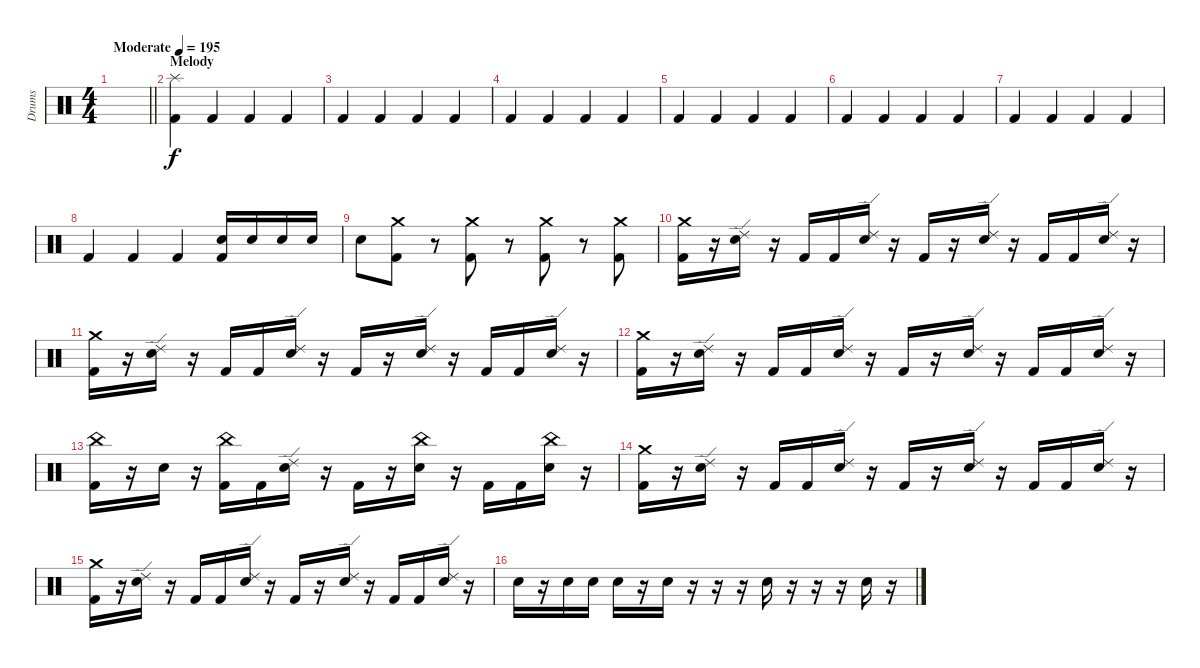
\track ("Drums" "Drums") {instrument percussion}
\staff {score}
\articulation defaults
\ts (4 4)
\tempo (195 "Moderate")
\clef neutral
\barLineRight lightlight
\ks c
|
\section ("" "Melody")
("Splash (hit)" "Kick (hit) 2").4 "Kick (hit) 2".4 "Kick (hit) 2".4 "Kick (hit) 2".4 |
"Kick (hit) 2".4 "Kick (hit) 2".4 "Kick (hit) 2".4 "Kick (hit) 2".4 |
"Kick (hit) 2".4 "Kick (hit) 2".4 "Kick (hit) 2".4 "Kick (hit) 2".4 |
"Kick (hit) 2".4 "Kick (hit) 2".4 "Kick (hit) 2".4 "Kick (hit) 2".4 |
"Kick (hit) 2".4 "Kick (hit) 2".4 "Kick (hit) 2".4 "Kick (hit) 2".4 |
"Kick (hit) 2".4 "Kick (hit) 2".4 "Kick (hit) 2".4 "Kick (hit) 2".4 |
"Kick (hit) 2".4 "Kick (hit) 2".4 "Kick (hit) 2".4 ("Snare (hit) 2" "Kick (hit) 2").16 "Snare (hit) 2".16 "Snare (hit) 2".16 "Snare (hit) 2".16 |
"Snare (hit) 2".8 ("Crash medium (hit)" "Kick (hit) 2").8 r.8 ("Crash medium (hit)" "Kick (hit) 2").8 r.8 ("Crash medium (hit)" "Kick (hit) 2").8 r.8 ("Crash medium (hit)" "Kick (hit) 2").8 |
("Crash medium (hit)" "Kick (hit) 2").16 r.16 ("Ride (edge) 2" "Snare (hit) 2").16 r.16 "Kick (hit) 2".16 "Kick (hit) 2".16 ("Ride (edge) 2" "Snare (hit) 2").16 r.16 "Kick (hit) 2".16 r.16 ("Ride (edge) 2" "Snare (hit) 2").16 r.16 "Kick (hit) 2".16 "Kick (hit) 2".16 ("Ride (edge) 2" "Snare (hit) 2").16 r.16 |
("Crash medium (hit)" "Kick (hit) 2").16 r.16 ("Ride (edge) 2" "Snare (hit) 2").16 r.16 "Kick (hit) 2".16 "Kick (hit) 2".16 ("Ride (edge) 2" "Snare (hit) 2").16 r.16 "Kick (hit) 2".16 r.16 ("Ride (edge) 2" "Snare (hit) 2").16 r.16 "Kick (hit) 2".16 "Kick (hit) 2".16 ("Ride (edge) 2" "Snare (hit) 2").16 r.16 |
("Crash medium (hit)" "Kick (hit) 2").16 r.16 ("Ride (edge) 2" "Snare (hit) 2").16 r.16 "Kick (hit) 2".16 "Kick (hit) 2".16 ("Ride (edge) 2" "Snare (hit) 2").16 r.16 "Kick (hit) 2".16 r.16 ("Ride (edge) 2" "Snare (hit) 2").16 r.16 "Kick (hit) 2".16 "Kick (hit) 2".16 ("Ride (edge) 2" "Snare (hit) 2").16 r.16 |
("China (hit)" "Kick (hit) 2").16 r.16 "Snare (hit) 2".16 r.16 ("China (hit)" "Kick (hit) 2").16 "Kick (hit) 2".16 ("Ride (edge) 2" "Snare (hit) 2").16 r.16 "Kick (hit) 2".16 r.16 ("China (hit)" "Snare (hit) 2").16 r.16 "Kick (hit) 2".16 "Kick (hit) 2".16 ("China (hit)" "Snare (hit) 2").16 r.16 |
("Crash medium (hit)" "Kick (hit) 2").16 r.16 ("Ride (edge) 2" "Snare (hit) 2").16 r.16 "Kick (hit) 2".16 "Kick (hit) 2".16 ("Ride (edge) 2" "Snare (hit) 2").16 r.16 "Kick (hit) 2".16 r.16 ("Ride (edge) 2" "Snare (hit) 2").16 r.16 "Kick (hit) 2".16 "Kick (hit) 2".16 ("Ride (edge) 2" "Snare (hit) 2").16 r.16 |
("Crash medium (hit)" "Kick (hit) 2").16 r.16 ("Ride (edge) 2" "Snare (hit) 2").16 r.16 "Kick (hit) 2".16 "Kick (hit) 2".16 ("Ride (edge) 2" "Snare (hit) 2").16 r.16 "Kick (hit) 2".16 r.16 ("Ride (edge) 2" "Snare (hit) 2").16 r.16 "Kick (hit) 2".16 "Kick (hit) 2".16 ("Ride (edge) 2" "Snare (hit) 2").16 r.16 |
"Snare (hit) 2".16 r.16 "Snare (hit) 2".16 "Snare (hit) 2".16 "Snare (hit) 2".16 r.16 "Snare (hit) 2".16 r.16 r.16 r.16 "Snare (hit) 2".16 r.16 r.16 r.16 "Snare (hit) 2".16 r.16
